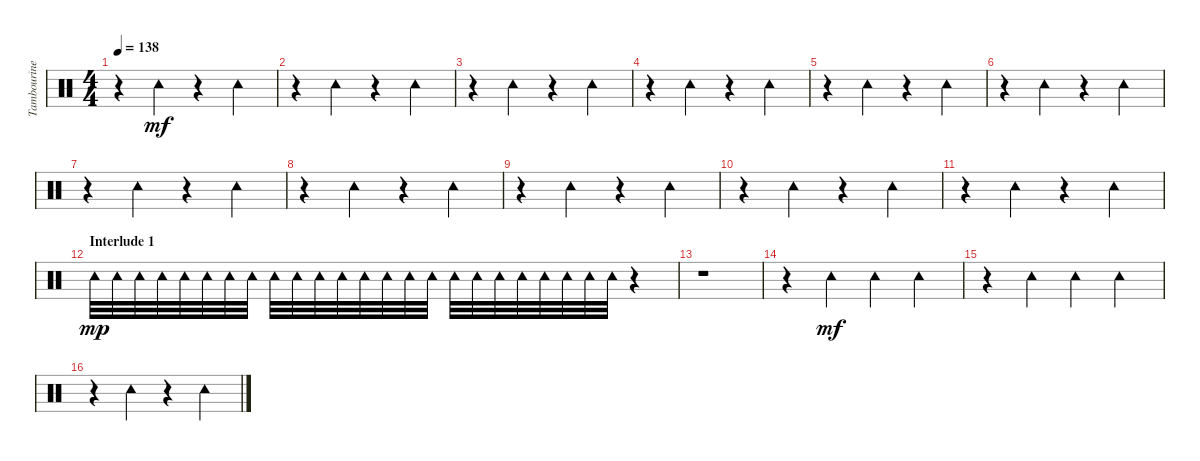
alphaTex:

\track ("Tambourine" "Tambourine") {instrument percussion}
\staff {score}
\articulation defaults
\ts (4 4)
\tempo 138
\clef neutral
\ks c
r.4{dy mf} "Tambourine (hit)".4 r.4 "Tambourine (hit)".4 |
r.4 "Tambourine (hit)".4 r.4 "Tambourine (hit)".4 |
r.4 "Tambourine (hit)".4 r.4 "Tambourine (hit)".4 |
r.4 "Tambourine (hit)".4 r.4 "Tambourine (hit)".4 |
r.4 "Tambourine (hit)".4 r.4 "Tambourine (hit)".4 |
r.4 "Tambourine (hit)".4 r.4 "Tambourine (hit)".4 |
r.4 "Tambourine (hit)".4 r.4 "Tambourine (hit)".4 |
r.4 "Tambourine (hit)".4 r.4 "Tambourine (hit)".4 |
r.4 "Tambourine (hit)".4 r.4 "Tambourine (hit)".4 |
r.4 "Tambourine (hit)".4 r.4 "Tambourine (hit)".4 |
r.4 "Tambourine (hit)".4 r.4 "Tambourine (hit)".4 |
\section ("" "Interlude 1")
"Tambourine (hit)".32{dy mp} "Tambourine (hit)".32 "Tambourine (hit)".32 "Tambourine (hit)".32 "Tambourine (hit)".32 "Tambourine (hit)".32 "Tambourine (hit)".32 "Tambourine (hit)".32 "Tambourine (hit)".32 "Tambourine (hit)".32 "Tambourine (hit)".32 "Tambourine (hit)".32 "Tambourine (hit)".32 "Tambourine (hit)".32 "Tambourine (hit)".32 "Tambourine (hit)".32 "Tambourine (hit)".32 "Tambourine (hit)".32 "Tambourine (hit)".32 "Tambourine (hit)".32 "Tambourine (hit)".32 "Tambourine (hit)".32 "Tambourine (hit)".32 "Tambourine (hit)".32 r.4 |
r.1 |
r.4 "Tambourine (hit)".4{dy mf} "Tambourine (hit)".4 "Tambourine (hit)".4 |
r.4 "Tambourine (hit)".4 "Tambourine (hit)".4 "Tambourine (hit)".4 |
r.4 "Tambourine (hit)".4 r.4 "Tambourine (hit)".4
